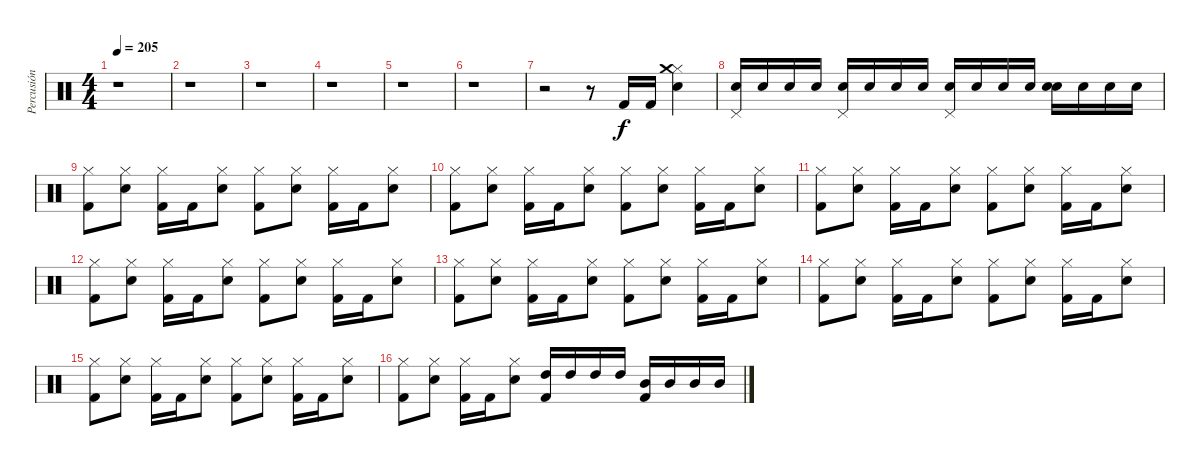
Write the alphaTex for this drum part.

\track ("Percusión" "Percusión") {instrument percussion}
\staff {score}
\articulation defaults
\ts (4 4)
\tempo 205
\clef neutral
\ks c
r.1{dy f} |
r.1 |
r.1 |
r.1 |
r.1 |
r.1 |
r.2 r.8 "Kick (hit) 2".16 "Kick (hit) 2".16 ("Hi-Hat (closed)" "Snare (hit) 2" "Crash medium (hit)").4 |
("Pedal Hi-Hat (hit)" "Snare (hit) 2").16 "Snare (hit) 2".16 "Snare (hit) 2".16 "Snare (hit) 2".16 ("Pedal Hi-Hat (hit)" "Snare (hit) 2").16 "Snare (hit) 2".16 "Snare (hit) 2".16 "Snare (hit) 2".16 ("Pedal Hi-Hat (hit)" "Snare (hit) 2").16 "Snare (hit) 2".16 "Snare (hit) 2".16 "Snare (hit) 2".16 ("Snare (hit)" "Snare (hit) 2").16 "Snare (hit) 2".16 "Snare (hit) 2".16 "Snare (hit) 2".16 |
("Hi-Hat (closed)" "Kick (hit) 2").8 ("Hi-Hat (closed)" "Snare (hit) 2").8 ("Hi-Hat (closed)" "Kick (hit) 2").16 "Kick (hit) 2".16 ("Hi-Hat (closed)" "Snare (hit) 2").8 ("Hi-Hat (closed)" "Kick (hit) 2").8 ("Hi-Hat (closed)" "Snare (hit) 2").8 ("Hi-Hat (closed)" "Kick (hit) 2").16 "Kick (hit) 2".16 ("Hi-Hat (closed)" "Snare (hit) 2").8 |
("Hi-Hat (closed)" "Kick (hit) 2").8 ("Hi-Hat (closed)" "Snare (hit) 2").8 ("Hi-Hat (closed)" "Kick (hit) 2").16 "Kick (hit) 2".16 ("Hi-Hat (closed)" "Snare (hit) 2").8 ("Hi-Hat (closed)" "Kick (hit) 2").8 ("Hi-Hat (closed)" "Snare (hit) 2").8 ("Hi-Hat (closed)" "Kick (hit) 2").16 "Kick (hit) 2".16 ("Hi-Hat (closed)" "Snare (hit) 2").8 |
("Hi-Hat (closed)" "Kick (hit) 2").8 ("Hi-Hat (closed)" "Snare (hit) 2").8 ("Hi-Hat (closed)" "Kick (hit) 2").16 "Kick (hit) 2".16 ("Hi-Hat (closed)" "Snare (hit) 2").8 ("Hi-Hat (closed)" "Kick (hit) 2").8 ("Hi-Hat (closed)" "Snare (hit) 2").8 ("Hi-Hat (closed)" "Kick (hit) 2").16 "Kick (hit) 2".16 ("Hi-Hat (closed)" "Snare (hit) 2").8 |
("Hi-Hat (closed)" "Kick (hit) 2").8 ("Hi-Hat (closed)" "Snare (hit) 2").8 ("Hi-Hat (closed)" "Kick (hit) 2").16 "Kick (hit) 2".16 ("Hi-Hat (closed)" "Snare (hit) 2").8 ("Hi-Hat (closed)" "Kick (hit) 2").8 ("Hi-Hat (closed)" "Snare (hit) 2").8 ("Hi-Hat (closed)" "Kick (hit) 2").16 "Kick (hit) 2".16 ("Hi-Hat (closed)" "Snare (hit) 2").8 |
("Hi-Hat (closed)" "Kick (hit) 2").8 ("Hi-Hat (closed)" "Snare (hit) 2").8 ("Hi-Hat (closed)" "Kick (hit) 2").16 "Kick (hit) 2".16 ("Hi-Hat (closed)" "Snare (hit) 2").8 ("Hi-Hat (closed)" "Kick (hit) 2").8 ("Hi-Hat (closed)" "Snare (hit) 2").8 ("Hi-Hat (closed)" "Kick (hit) 2").16 "Kick (hit) 2".16 ("Hi-Hat (closed)" "Snare (hit) 2").8 |
("Hi-Hat (closed)" "Kick (hit) 2").8 ("Hi-Hat (closed)" "Snare (hit) 2").8 ("Hi-Hat (closed)" "Kick (hit) 2").16 "Kick (hit) 2".16 ("Hi-Hat (closed)" "Snare (hit) 2").8 ("Hi-Hat (closed)" "Kick (hit) 2").8 ("Hi-Hat (closed)" "Snare (hit) 2").8 ("Hi-Hat (closed)" "Kick (hit) 2").16 "Kick (hit) 2".16 ("Hi-Hat (closed)" "Snare (hit) 2").8 |
("Hi-Hat (closed)" "Kick (hit) 2").8 ("Hi-Hat (closed)" "Snare (hit) 2").8 ("Hi-Hat (closed)" "Kick (hit) 2").16 "Kick (hit) 2".16 ("Hi-Hat (closed)" "Snare (hit) 2").8 ("Hi-Hat (closed)" "Kick (hit) 2").8 ("Hi-Hat (closed)" "Snare (hit) 2").8 ("Hi-Hat (closed)" "Kick (hit) 2").16 "Kick (hit) 2".16 ("Hi-Hat (closed)" "Snare (hit) 2").8 |
("Hi-Hat (closed)" "Kick (hit) 2").8 ("Hi-Hat (closed)" "Snare (hit) 2").8 ("Hi-Hat (closed)" "Kick (hit) 2").16 "Kick (hit) 2".16 ("Hi-Hat (closed)" "Snare (hit) 2").8 ("High Tom (hit)" "Kick (hit) 2").16 "High Tom (hit)".16 "High Tom (hit)".16 "High Tom (hit)".16 ("Mid Tom (hit)" "Kick (hit) 2").16 "Mid Tom (hit)".16 "Mid Tom (hit)".16 "Mid Tom (hit)".16
